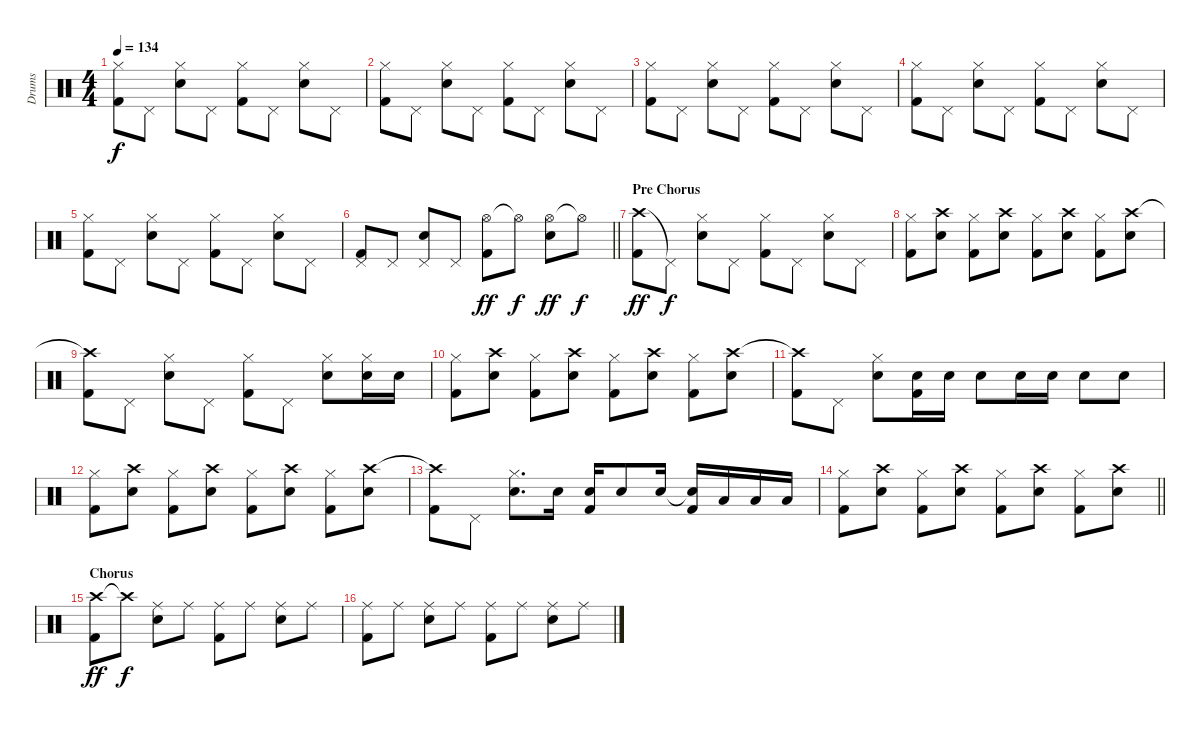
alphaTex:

\track ("Drums" "Drums") {instrument percussion}
\staff {score}
\articulation defaults
\ts (4 4)
\tempo 134
\clef neutral
\ks c
("Hi-Hat (closed)" "Kick (hit) 2").8{dy f} "Pedal Hi-Hat (hit)".8 ("Hi-Hat (closed)" "Snare (hit) 2").8 "Pedal Hi-Hat (hit)".8 ("Hi-Hat (closed)" "Kick (hit) 2").8 "Pedal Hi-Hat (hit)".8 ("Hi-Hat (closed)" "Snare (hit) 2").8 "Pedal Hi-Hat (hit)".8 |
("Hi-Hat (closed)" "Kick (hit) 2").8 "Pedal Hi-Hat (hit)".8 ("Hi-Hat (closed)" "Snare (hit) 2").8 "Pedal Hi-Hat (hit)".8 ("Hi-Hat (closed)" "Kick (hit) 2").8 "Pedal Hi-Hat (hit)".8 ("Hi-Hat (closed)" "Snare (hit) 2").8 "Pedal Hi-Hat (hit)".8 |
("Hi-Hat (closed)" "Kick (hit) 2").8 "Pedal Hi-Hat (hit)".8 ("Hi-Hat (closed)" "Snare (hit) 2").8 "Pedal Hi-Hat (hit)".8 ("Hi-Hat (closed)" "Kick (hit) 2").8 "Pedal Hi-Hat (hit)".8 ("Hi-Hat (closed)" "Snare (hit) 2").8 "Pedal Hi-Hat (hit)".8 |
("Hi-Hat (closed)" "Kick (hit) 2").8 "Pedal Hi-Hat (hit)".8 ("Hi-Hat (closed)" "Snare (hit) 2").8 "Pedal Hi-Hat (hit)".8 ("Hi-Hat (closed)" "Kick (hit) 2").8 "Pedal Hi-Hat (hit)".8 ("Hi-Hat (closed)" "Snare (hit) 2").8 "Pedal Hi-Hat (hit)".8 |
("Hi-Hat (closed)" "Kick (hit) 2").8 "Pedal Hi-Hat (hit)".8 ("Hi-Hat (closed)" "Snare (hit) 2").8 "Pedal Hi-Hat (hit)".8 ("Hi-Hat (closed)" "Kick (hit) 2").8 "Pedal Hi-Hat (hit)".8 ("Hi-Hat (closed)" "Snare (hit) 2").8 "Pedal Hi-Hat (hit)".8 |
\barLineRight lightlight
("Pedal Hi-Hat (hit)" "Kick (hit) 2").8 "Pedal Hi-Hat (hit)".8 ("Pedal Hi-Hat (hit)" "Snare (hit) 2").8 "Pedal Hi-Hat (hit)".8 ("Hi-Hat (open)" "Kick (hit) 2").8{dy ff} "Hi-Hat (open)"{t}.8{dy f} ("Hi-Hat (open)" "Snare (hit) 2").8{dy ff} "Hi-Hat (open)"{t}.8{dy f} |
\section ("" "Pre Chorus")
("Crash high (hit)" "Kick (hit) 2").8{dy ff} "Pedal Hi-Hat (hit)"{t}.8{dy f} ("Hi-Hat (closed)" "Snare (hit) 2").8 "Pedal Hi-Hat (hit)".8 ("Hi-Hat (closed)" "Kick (hit) 2").8 "Pedal Hi-Hat (hit)".8 ("Hi-Hat (closed)" "Snare (hit) 2").8 "Pedal Hi-Hat (hit)".8 |
("Hi-Hat (closed)" "Kick (hit) 2").8 ("Crash high (hit)" "Snare (hit) 2").8 ("Hi-Hat (closed)" "Kick (hit) 2").8 ("Crash high (hit)" "Snare (hit) 2").8 ("Hi-Hat (closed)" "Kick (hit) 2").8 ("Crash high (hit)" "Snare (hit) 2").8 ("Hi-Hat (closed)" "Kick (hit) 2").8 ("Crash high (hit)" "Snare (hit) 2").8 |
("Crash high (hit)"{t} "Kick (hit) 2").8 "Pedal Hi-Hat (hit)".8 ("Hi-Hat (closed)" "Snare (hit) 2").8 "Pedal Hi-Hat (hit)".8 ("Hi-Hat (closed)" "Kick (hit) 2").8 "Pedal Hi-Hat (hit)".8 ("Hi-Hat (closed)" "Snare (hit) 2").8 ("Hi-Hat (closed)" "Snare (hit) 2").16 "Snare (hit) 2".16 |
("Hi-Hat (closed)" "Kick (hit) 2").8 ("Crash high (hit)" "Snare (hit) 2").8 ("Hi-Hat (closed)" "Kick (hit) 2").8 ("Crash high (hit)" "Snare (hit) 2").8 ("Hi-Hat (closed)" "Kick (hit) 2").8 ("Crash high (hit)" "Snare (hit) 2").8 ("Hi-Hat (closed)" "Kick (hit) 2").8 ("Crash high (hit)" "Snare (hit) 2").8 |
("Crash high (hit)"{t} "Kick (hit) 2").8 "Pedal Hi-Hat (hit)".8 ("Hi-Hat (closed)" "Snare (hit) 2").8 ("Snare (hit) 2" "Kick (hit) 2").16 "Snare (hit) 2".16 "Snare (hit) 2".8 "Snare (hit) 2".16 "Snare (hit) 2".16 "Snare (hit) 2".8 "Snare (hit) 2".8 |
("Hi-Hat (closed)" "Kick (hit) 2").8 ("Crash high (hit)" "Snare (hit) 2").8 ("Hi-Hat (closed)" "Kick (hit) 2").8 ("Crash high (hit)" "Snare (hit) 2").8 ("Hi-Hat (closed)" "Kick (hit) 2").8 ("Crash high (hit)" "Snare (hit) 2").8 ("Hi-Hat (closed)" "Kick (hit) 2").8 ("Crash high (hit)" "Snare (hit) 2").8 |
("Crash high (hit)"{t} "Kick (hit) 2").8 "Pedal Hi-Hat (hit)".8 ("Hi-Hat (closed)" "Snare (hit) 2").8{d} "Snare (hit) 2".16 ("Snare (hit) 2" "Kick (hit) 2").16 "Snare (hit) 2".8 "Snare (hit) 2".16 ("Snare (hit)"{t} "Kick (hit) 2").16 "Low Tom (hit)".16 "Low Tom (hit)".16 "Low Tom (hit)".16 |
\barLineRight lightlight
("Hi-Hat (closed)" "Kick (hit) 2").8 ("Crash high (hit)" "Snare (hit) 2").8 ("Hi-Hat (closed)" "Kick (hit) 2").8 ("Crash high (hit)" "Snare (hit) 2").8 ("Hi-Hat (closed)" "Kick (hit) 2").8 ("Crash high (hit)" "Snare (hit) 2").8 ("Hi-Hat (closed)" "Kick (hit) 2").8 ("Crash high (hit)" "Snare (hit) 2").8 |
\section ("" "Chorus")
("Crash high (hit)" "Kick (hit) 2").8{dy ff} "Crash high (hit)"{t}.8{dy f} ("Ride (middle)" "Snare (hit) 2").8 "Ride (middle)".8 ("Ride (middle)" "Kick (hit) 2").8 "Ride (middle)".8 ("Ride (middle)" "Snare (hit) 2").8 "Ride (middle)".8 |
("Ride (middle)" "Kick (hit) 2").8 "Ride (middle)".8 ("Ride (middle)" "Snare (hit) 2").8 "Ride (middle)".8 ("Ride (middle)" "Kick (hit) 2").8 "Ride (middle)".8 ("Ride (middle)" "Snare (hit) 2").8 "Ride (middle)".8
